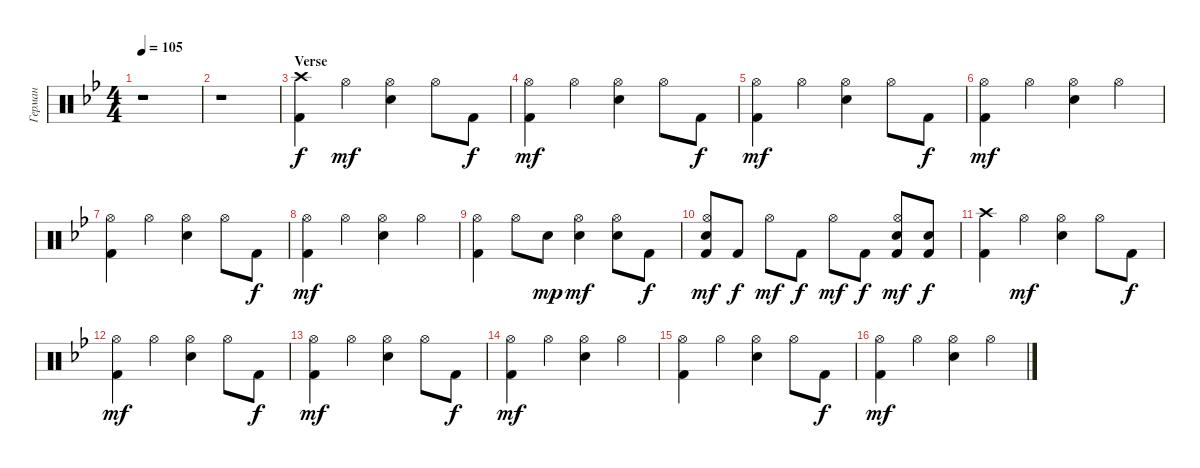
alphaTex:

\track ("Герман" "Герман") {instrument percussion}
\staff {score}
\articulation defaults
\ts (4 4)
\tempo 105
\clef neutral
\ks gminor
r.1{dy f} |
r.1 |
\section ("" "Verse")
("Crash high (hit)" "Kick (hit) 2").4 "Hi-Hat (open)".4{dy mf} ("Hi-Hat (open)" "Electric Snare (hit)").4 "Hi-Hat (open)".8 "Kick (hit) 2".8{dy f} |
("Hi-Hat (open)" "Kick (hit) 2").4{dy mf} "Hi-Hat (open)".4 ("Hi-Hat (open)" "Electric Snare (hit)").4 "Hi-Hat (open)".8 "Kick (hit) 2".8{dy f} |
("Hi-Hat (open)" "Kick (hit) 2").4{dy mf} "Hi-Hat (open)".4 ("Hi-Hat (open)" "Electric Snare (hit)").4 "Hi-Hat (open)".8 "Kick (hit) 2".8{dy f} |
("Hi-Hat (open)" "Kick (hit) 2").4{dy mf} "Hi-Hat (open)".4 ("Hi-Hat (open)" "Electric Snare (hit)").4 "Hi-Hat (open)".4 |
("Hi-Hat (open)" "Kick (hit) 2").4 "Hi-Hat (open)".4 ("Hi-Hat (open)" "Electric Snare (hit)").4 "Hi-Hat (open)".8 "Kick (hit) 2".8{dy f} |
("Hi-Hat (open)" "Kick (hit) 2").4{dy mf} "Hi-Hat (open)".4 ("Hi-Hat (open)" "Electric Snare (hit)").4 "Hi-Hat (open)".4 |
("Hi-Hat (open)" "Kick (hit) 2").4 "Hi-Hat (open)".8 "Electric Snare (hit)".8{dy mp} ("Hi-Hat (open)" "Electric Snare (hit)").4{dy mf} ("Hi-Hat (open)" "Electric Snare (hit)").8 "Kick (hit) 2".8{dy f} |
("Hi-Hat (open)" "Electric Snare (hit)" "Kick (hit) 2").8{dy mf} "Kick (hit) 2".8{dy f} "Hi-Hat (open)".8{dy mf} "Kick (hit) 2".8{dy f} "Hi-Hat (open)".8{dy mf} "Kick (hit) 2".8{dy f} ("Hi-Hat (open)" "Electric Snare (hit)" "Kick (hit) 2").8{dy mf} ("Electric Snare (hit)" "Kick (hit) 2").8{dy f} |
("Crash high (hit)" "Kick (hit) 2").4 "Hi-Hat (open)".4{dy mf} ("Hi-Hat (open)" "Electric Snare (hit)").4 "Hi-Hat (open)".8 "Kick (hit) 2".8{dy f} |
("Hi-Hat (open)" "Kick (hit) 2").4{dy mf} "Hi-Hat (open)".4 ("Hi-Hat (open)" "Electric Snare (hit)").4 "Hi-Hat (open)".8 "Kick (hit) 2".8{dy f} |
("Hi-Hat (open)" "Kick (hit) 2").4{dy mf} "Hi-Hat (open)".4 ("Hi-Hat (open)" "Electric Snare (hit)").4 "Hi-Hat (open)".8 "Kick (hit) 2".8{dy f} |
("Hi-Hat (open)" "Kick (hit) 2").4{dy mf} "Hi-Hat (open)".4 ("Hi-Hat (open)" "Electric Snare (hit)").4 "Hi-Hat (open)".4 |
("Hi-Hat (open)" "Kick (hit) 2").4 "Hi-Hat (open)".4 ("Hi-Hat (open)" "Electric Snare (hit)").4 "Hi-Hat (open)".8 "Kick (hit) 2".8{dy f} |
("Hi-Hat (open)" "Kick (hit) 2").4{dy mf} "Hi-Hat (open)".4 ("Hi-Hat (open)" "Electric Snare (hit)").4 "Hi-Hat (open)".4
